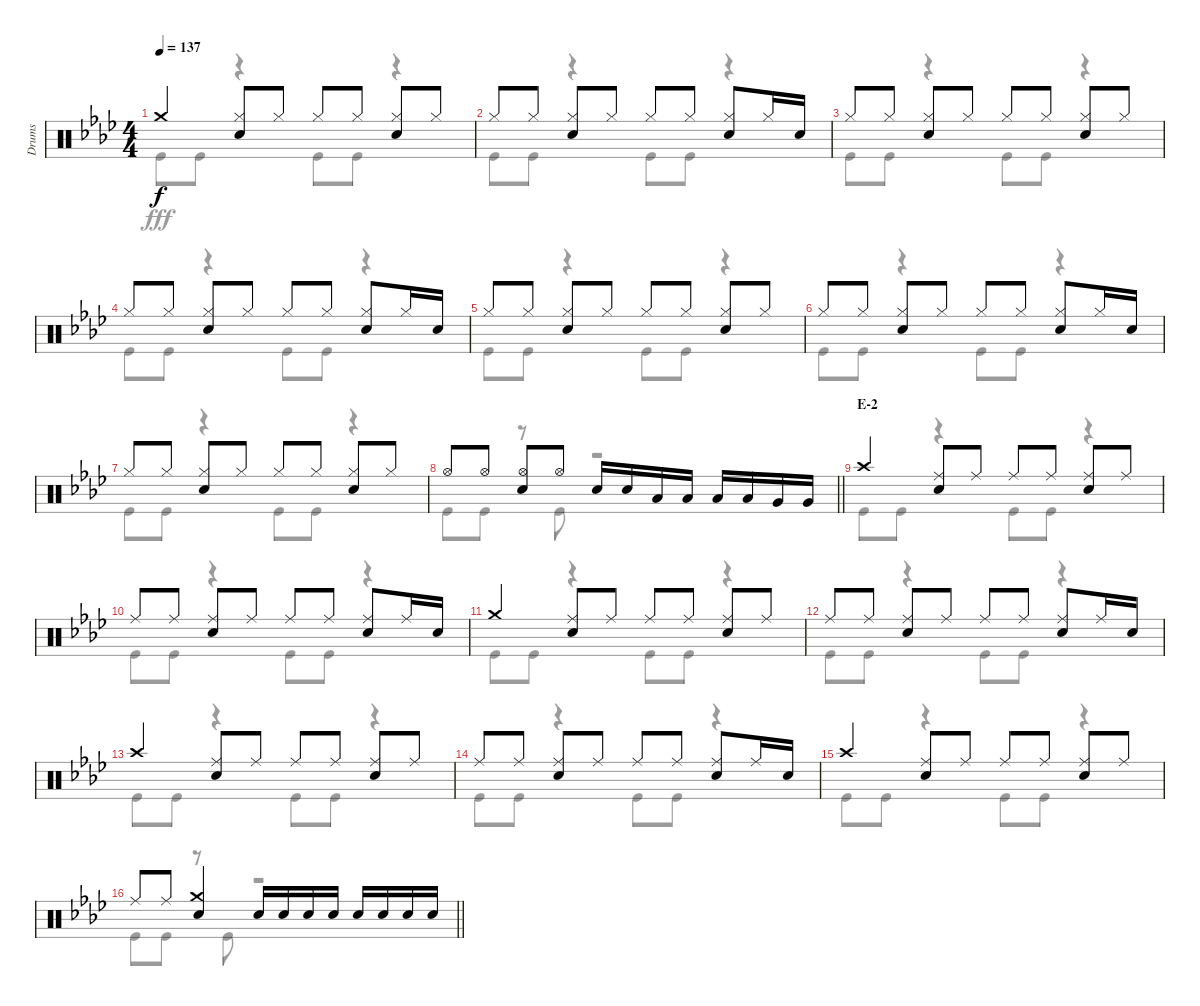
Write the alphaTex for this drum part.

\track ("Drums" "Drums") {instrument percussion}
\staff {score}
\articulation defaults
\voice
\ts (4 4)
\tempo 137
\clef neutral
\ks ab "Crash medium (hit)".4{dy f}
("Hi-Hat (closed)" "Snare (hit) 2").8 "Hi-Hat (closed)".8 "Hi-Hat (closed)".8 "Hi-Hat (closed)".8 ("Hi-Hat (closed)" "Snare (hit) 2").8 "Hi-Hat (closed)".8 |
"Hi-Hat (closed)".8 "Hi-Hat (closed)".8 ("Hi-Hat (closed)" "Snare (hit) 2").8 "Hi-Hat (closed)".8 "Hi-Hat (closed)".8 "Hi-Hat (closed)".8 ("Hi-Hat (closed)" "Snare (hit) 2").8 "Hi-Hat (closed)".16 "Snare (hit) 2".16 |
"Hi-Hat (closed)".8 "Hi-Hat (closed)".8 ("Hi-Hat (closed)" "Snare (hit) 2").8 "Hi-Hat (closed)".8 "Hi-Hat (closed)".8 "Hi-Hat (closed)".8 ("Hi-Hat (closed)" "Snare (hit) 2").8 "Hi-Hat (closed)".8 |
"Hi-Hat (closed)".8 "Hi-Hat (closed)".8 ("Hi-Hat (closed)" "Snare (hit) 2").8 "Hi-Hat (closed)".8 "Hi-Hat (closed)".8 "Hi-Hat (closed)".8 ("Hi-Hat (closed)" "Snare (hit) 2").8 "Hi-Hat (closed)".16 "Snare (hit) 2".16 |
"Hi-Hat (closed)".8 "Hi-Hat (closed)".8 ("Hi-Hat (closed)" "Snare (hit) 2").8 "Hi-Hat (closed)".8 "Hi-Hat (closed)".8 "Hi-Hat (closed)".8 ("Hi-Hat (closed)" "Snare (hit) 2").8 "Hi-Hat (closed)".8 |
"Hi-Hat (closed)".8 "Hi-Hat (closed)".8 ("Hi-Hat (closed)" "Snare (hit) 2").8 "Hi-Hat (closed)".8 "Hi-Hat (closed)".8 "Hi-Hat (closed)".8 ("Hi-Hat (closed)" "Snare (hit) 2").8 "Hi-Hat (closed)".16 "Snare (hit) 2".16 |
"Hi-Hat (closed)".8 "Hi-Hat (closed)".8 ("Hi-Hat (closed)" "Snare (hit) 2").8 "Hi-Hat (closed)".8 "Hi-Hat (closed)".8 "Hi-Hat (closed)".8 ("Hi-Hat (closed)" "Snare (hit) 2").8 "Hi-Hat (closed)".8 |
\barLineRight lightlight "Hi-Hat (open)".8 "Hi-Hat (open)".8
("Hi-Hat (open)" "Snare (hit) 2").8 "Hi-Hat (open)".8 "Snare (hit) 2".16 "Snare (hit) 2".16 "Low Tom (hit)".16 "Low Tom (hit)".16 "Low Tom (hit)".16 "Low Tom (hit)".16 "Very Low Tom (hit)".16 "Very Low Tom (hit)".16 |
\section ("" "E-2")
"Crash high (hit)".4 ("Ride (middle)" "Snare (hit) 2").8 "Ride (middle)".8 "Ride (middle)".8 "Ride (middle)".8 ("Ride (middle)" "Snare (hit) 2").8 "Ride (middle)".8 |
"Ride (middle)".8 "Ride (middle)".8 ("Ride (middle)" "Snare (hit) 2").8 "Ride (middle)".8 "Ride (middle)".8 "Ride (middle)".8 ("Ride (middle)" "Snare (hit) 2").8 "Ride (middle)".16 "Snare (hit) 2".16 |
"Crash medium (hit)".4 ("Ride (middle)" "Snare (hit) 2").8 "Ride (middle)".8 "Ride (middle)".8 "Ride (middle)".8 ("Ride (middle)" "Snare (hit) 2").8 "Ride (middle)".8 |
"Ride (middle)".8 "Ride (middle)".8 ("Ride (middle)" "Snare (hit) 2").8 "Ride (middle)".8 "Ride (middle)".8 "Ride (middle)".8 ("Ride (middle)" "Snare (hit) 2").8 "Ride (middle)".16 "Snare (hit) 2".16 |
"Crash high (hit)".4 ("Ride (middle)" "Snare (hit) 2").8 "Ride (middle)".8 "Ride (middle)".8 "Ride (middle)".8 ("Ride (middle)" "Snare (hit) 2").8 "Ride (middle)".8 |
"Ride (middle)".8 "Ride (middle)".8 ("Ride (middle)" "Snare (hit) 2").8 "Ride (middle)".8 "Ride (middle)".8 "Ride (middle)".8 ("Ride (middle)" "Snare (hit) 2").8 "Ride (middle)".16 "Snare (hit) 2".16 |
"Crash high (hit)".4 ("Ride (middle)" "Snare (hit) 2").8 "Ride (middle)".8 "Ride (middle)".8 "Ride (middle)".8 ("Ride (middle)" "Snare (hit) 2").8 "Ride (middle)".8 |
\barLineRight lightlight "Ride (middle)".8 "Ride (middle)".8
("Crash medium (hit)" "Snare (hit) 2").4 "Snare (hit) 2".16 "Snare (hit) 2".16 "Snare (hit) 2".16 "Snare (hit) 2".16 "Snare (hit) 2".16 "Snare (hit) 2".16 "Snare (hit) 2".16 "Snare (hit) 2".16
\voice
\clef neutral
\ottava regular
\simile none
\ks ab "Kick (hit)".8{dy fff} "Kick (hit)".8
r.4 "Kick (hit)".8 "Kick (hit)".8 r.4 |
"Kick (hit)".8 "Kick (hit)".8 r.4 "Kick (hit)".8 "Kick (hit)".8 r.4 |
"Kick (hit)".8 "Kick (hit)".8 r.4 "Kick (hit)".8 "Kick (hit)".8 r.4 |
"Kick (hit)".8 "Kick (hit)".8 r.4 "Kick (hit)".8 "Kick (hit)".8 r.4 |
"Kick (hit)".8 "Kick (hit)".8 r.4 "Kick (hit)".8 "Kick (hit)".8 r.4 |
"Kick (hit)".8 "Kick (hit)".8 r.4 "Kick (hit)".8 "Kick (hit)".8 r.4 |
"Kick (hit)".8 "Kick (hit)".8 r.4 "Kick (hit)".8 "Kick (hit)".8 r.4 |
\barLineRight lightlight "Kick (hit)".8 "Kick (hit)".8
r.8 "Kick (hit)".8 r.2 |
"Kick (hit)".8 "Kick (hit)".8 r.4 "Kick (hit)".8 "Kick (hit)".8 r.4 |
"Kick (hit)".8 "Kick (hit)".8 r.4 "Kick (hit)".8 "Kick (hit)".8 r.4 |
"Kick (hit)".8 "Kick (hit)".8 r.4 "Kick (hit)".8 "Kick (hit)".8 r.4 |
"Kick (hit)".8 "Kick (hit)".8 r.4 "Kick (hit)".8 "Kick (hit)".8 r.4 |
"Kick (hit)".8 "Kick (hit)".8 r.4 "Kick (hit)".8 "Kick (hit)".8 r.4 |
"Kick (hit)".8 "Kick (hit)".8 r.4 "Kick (hit)".8 "Kick (hit)".8 r.4 |
"Kick (hit)".8 "Kick (hit)".8 r.4 "Kick (hit)".8 "Kick (hit)".8 r.4 |
\barLineRight lightlight "Kick (hit)".8 "Kick (hit)".8
r.8 "Kick (hit)".8 r.2
